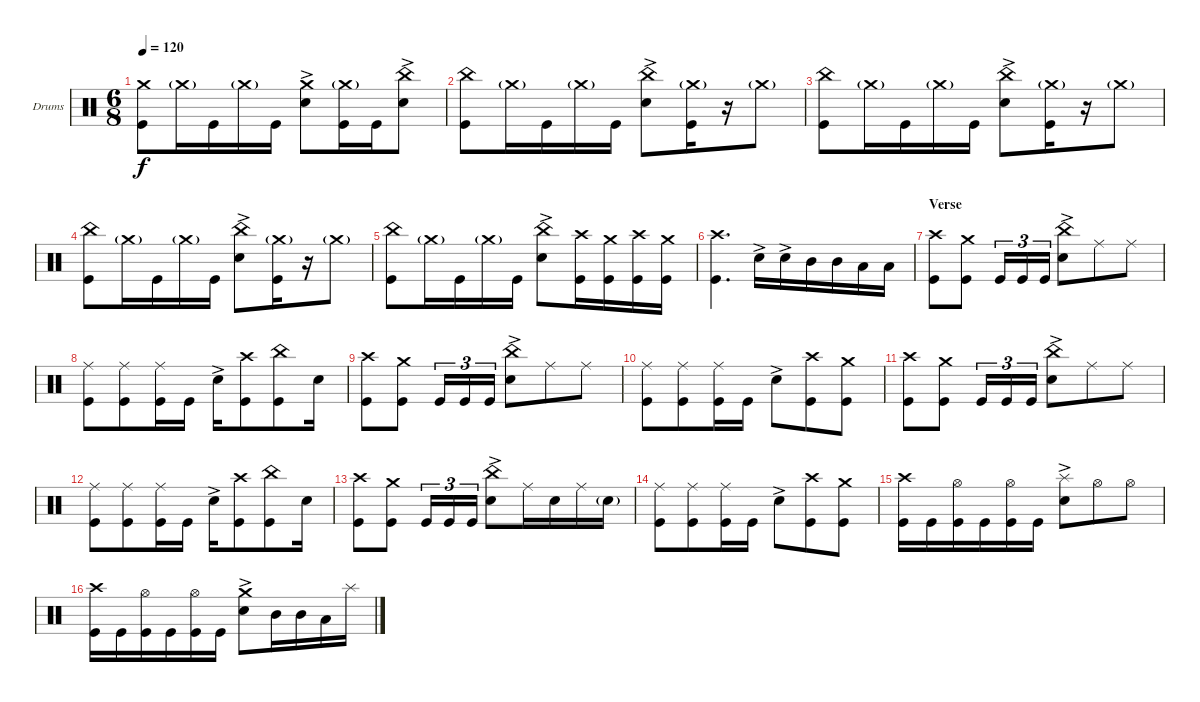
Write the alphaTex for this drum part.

\bracketExtendMode groupsimilarinstruments
\firstSystemTrackNameOrientation horizontal
\otherSystemsTrackNameOrientation horizontal
\track ("Drumkit" "Drums") {instrument percussion}
\staff {score}
\articulation defaults
\ts (6 8)
\tempo 120
\clef neutral
\ks c
("Kick (hit)" "Crash medium (hit)").8{dy f} "Crash medium (hit)"{g}.16 "Kick (hit)".16 "Crash medium (hit)"{g}.16 "Kick (hit)".16 ("Snare (hit) 2"{ac} "Crash medium (hit)").8 ("Kick (hit)" "Crash medium (hit)"{g}).16 "Kick (hit)".16 ("Snare (hit) 2"{ac} "China (hit)").8 |
("Kick (hit)" "China (hit)").8 "Crash medium (hit)"{g}.16 "Kick (hit)".16 "Crash medium (hit)"{g}.16 "Kick (hit)".16 ("Snare (hit) 2"{ac} "China (hit)").8 ("Kick (hit)" "Crash medium (hit)"{g}).16 r.16 "Crash medium (hit)"{g}.8 |
("Kick (hit)" "China (hit)").8 "Crash medium (hit)"{g}.16 "Kick (hit)".16 "Crash medium (hit)"{g}.16 "Kick (hit)".16 ("Snare (hit) 2"{ac} "China (hit)").8 ("Kick (hit)" "Crash medium (hit)"{g}).16 r.16 "Crash medium (hit)"{g}.8 |
("Kick (hit)" "China (hit)").8 "Crash medium (hit)"{g}.16 "Kick (hit)".16 "Crash medium (hit)"{g}.16 "Kick (hit)".16 ("Snare (hit) 2"{ac} "China (hit)").8 ("Kick (hit)" "Crash medium (hit)"{g}).16 r.16 "Crash medium (hit)"{g}.8 |
("Kick (hit)" "China (hit)").8 "Crash medium (hit)"{g}.16 "Kick (hit)".16 "Crash medium (hit)"{g}.16 "Kick (hit)".16 ("Snare (hit) 2"{ac} "China (hit)").8 ("Kick (hit)" "Crash high (hit)").16 ("Kick (hit)" "Crash medium (hit)").16 ("Kick (hit)" "Crash high (hit)").16 ("Kick (hit)" "Crash medium (hit)").16 |
("Kick (hit)" "Crash high (hit)").4{d} "Snare (hit) 2"{ac}.16 "Snare (hit) 2"{ac}.16 "Mid Tom (hit)".16 "Mid Tom (hit)".16 "Low Tom (hit)".16 "Low Tom (hit)".16 |
\section ("" "Verse")
("Kick (hit)" "Crash high (hit)").8 ("Kick (hit)" "Crash medium (hit)").8 "Kick (hit)".16{tu (3 2)} "Kick (hit)".16{tu (3 2)} "Kick (hit)".16{tu (3 2)} ("Snare (hit) 2"{ac} "China (hit)").8 "Ride (middle)".8 "Ride (middle)".8 |
("Kick (hit)" "Ride (middle)").8 ("Kick (hit)" "Ride (middle)").8 ("Kick (hit)" "Ride (middle)").16 "Kick (hit)".16 "Snare (hit) 2"{ac}.16 ("Kick (hit)" "Crash high (hit)").8 ("Kick (hit)" "China (hit)").8 "Snare (hit) 2".16 |
("Kick (hit)" "Crash high (hit)").8 ("Kick (hit)" "Crash medium (hit)").8 "Kick (hit)".16{tu (3 2)} "Kick (hit)".16{tu (3 2)} "Kick (hit)".16{tu (3 2)} ("Snare (hit) 2"{ac} "China (hit)").8 "Ride (middle)".8 "Ride (middle)".8 |
("Kick (hit)" "Ride (middle)").8 ("Kick (hit)" "Ride (middle)").8 ("Kick (hit)" "Ride (middle)").16 "Kick (hit)".16 "Snare (hit) 2"{ac}.8 ("Kick (hit)" "Crash high (hit)").8 ("Kick (hit)" "Crash medium (hit)").8 |
("Kick (hit)" "Crash high (hit)").8 ("Kick (hit)" "Crash medium (hit)").8 "Kick (hit)".16{tu (3 2)} "Kick (hit)".16{tu (3 2)} "Kick (hit)".16{tu (3 2)} ("Snare (hit) 2"{ac} "China (hit)").8 "Ride (middle)".8 "Ride (middle)".8 |
("Kick (hit)" "Ride (middle)").8 ("Kick (hit)" "Ride (middle)").8 ("Kick (hit)" "Ride (middle)").16 "Kick (hit)".16 "Snare (hit) 2"{ac}.16 ("Kick (hit)" "Crash high (hit)").8 ("Kick (hit)" "China (hit)").8 "Snare (hit) 2".16 |
("Kick (hit)" "Crash high (hit)").8 ("Kick (hit)" "Crash medium (hit)").8 "Kick (hit)".16{tu (3 2)} "Kick (hit)".16{tu (3 2)} "Kick (hit)".16{tu (3 2)} ("Snare (hit) 2"{ac} "China (hit)").8 "Ride (middle)".16 "Snare (hit) 2".16 "Ride (middle)".16 "Snare (hit) 2"{g}.16 |
("Kick (hit)" "Ride (middle)").8 ("Kick (hit)" "Ride (middle)").8 ("Kick (hit)" "Ride (middle)").16 "Kick (hit)".16 "Snare (hit) 2"{ac}.8 ("Kick (hit)" "Crash high (hit)").8 ("Kick (hit)" "Crash medium (hit)").8 |
("Crash high (hit)" "Kick (hit)").16 "Kick (hit)".16 ("Kick (hit)" "Hi-Hat (open)").16 "Kick (hit)".16 ("Kick (hit)" "Hi-Hat (open)").16 "Kick (hit)".16 ("Snare (hit) 2"{ac} "Splash (hit)").8 "Hi-Hat (open)".8 "Hi-Hat (open)".8 |
("Crash high (hit)" "Kick (hit)").16 "Kick (hit)".16 ("Kick (hit)" "Hi-Hat (open)").16 "Kick (hit)".16 ("Kick (hit)" "Hi-Hat (open)").16 "Kick (hit)".16 ("Snare (hit) 2"{ac} "Crash medium (hit)").8 "Mid Tom (hit)".16 "Mid Tom (hit)".16 "Low Tom (hit)".16 "Splash (hit)".16
